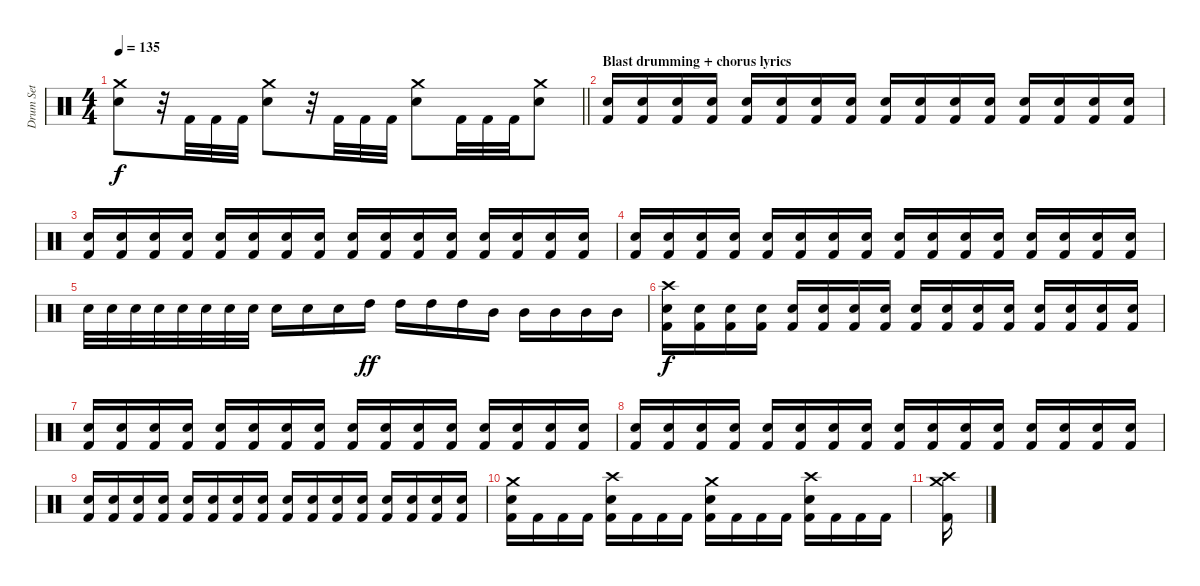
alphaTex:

\track ("Drum Set" "Drum Set") {instrument percussion}
\staff {score}
\articulation defaults
\ts (4 4)
\tempo 135
\clef neutral
\barLineRight lightlight
\ks c
("Crash medium (hit)" "Snare (hit) 2").8{dy f} r.32 "Kick (hit) 2".32 "Kick (hit) 2".32 "Kick (hit) 2".32 ("Crash medium (hit)" "Snare (hit) 2").8 r.32 "Kick (hit) 2".32 "Kick (hit) 2".32 "Kick (hit) 2".32 ("Crash medium (hit)" "Snare (hit) 2").8 "Kick (hit) 2".32 "Kick (hit) 2".32 "Kick (hit) 2".32 ("Crash medium (hit)" "Snare (hit) 2").8 |
\section ("" "Blast drumming + chorus lyrics")
("Snare (hit) 2" "Kick (hit) 2").16 ("Snare (hit) 2" "Kick (hit) 2").16 ("Snare (hit) 2" "Kick (hit) 2").16 ("Snare (hit) 2" "Kick (hit) 2").16 ("Snare (hit) 2" "Kick (hit) 2").16 ("Snare (hit) 2" "Kick (hit) 2").16 ("Snare (hit) 2" "Kick (hit) 2").16 ("Snare (hit) 2" "Kick (hit) 2").16 ("Snare (hit) 2" "Kick (hit) 2").16 ("Snare (hit) 2" "Kick (hit) 2").16 ("Snare (hit) 2" "Kick (hit) 2").16 ("Snare (hit) 2" "Kick (hit) 2").16 ("Snare (hit) 2" "Kick (hit) 2").16 ("Snare (hit) 2" "Kick (hit) 2").16 ("Snare (hit) 2" "Kick (hit) 2").16 ("Snare (hit) 2" "Kick (hit) 2").16 |
("Snare (hit) 2" "Kick (hit) 2").16 ("Snare (hit) 2" "Kick (hit) 2").16 ("Snare (hit) 2" "Kick (hit) 2").16 ("Snare (hit) 2" "Kick (hit) 2").16 ("Snare (hit) 2" "Kick (hit) 2").16 ("Snare (hit) 2" "Kick (hit) 2").16 ("Snare (hit) 2" "Kick (hit) 2").16 ("Snare (hit) 2" "Kick (hit) 2").16 ("Snare (hit) 2" "Kick (hit) 2").16 ("Snare (hit) 2" "Kick (hit) 2").16 ("Snare (hit) 2" "Kick (hit) 2").16 ("Snare (hit) 2" "Kick (hit) 2").16 ("Snare (hit) 2" "Kick (hit) 2").16 ("Snare (hit) 2" "Kick (hit) 2").16 ("Snare (hit) 2" "Kick (hit) 2").16 ("Snare (hit) 2" "Kick (hit) 2").16 |
("Snare (hit) 2" "Kick (hit) 2").16 ("Snare (hit) 2" "Kick (hit) 2").16 ("Snare (hit) 2" "Kick (hit) 2").16 ("Snare (hit) 2" "Kick (hit) 2").16 ("Snare (hit) 2" "Kick (hit) 2").16 ("Snare (hit) 2" "Kick (hit) 2").16 ("Snare (hit) 2" "Kick (hit) 2").16 ("Snare (hit) 2" "Kick (hit) 2").16 ("Snare (hit) 2" "Kick (hit) 2").16 ("Snare (hit) 2" "Kick (hit) 2").16 ("Snare (hit) 2" "Kick (hit) 2").16 ("Snare (hit) 2" "Kick (hit) 2").16 ("Snare (hit) 2" "Kick (hit) 2").16 ("Snare (hit) 2" "Kick (hit) 2").16 ("Snare (hit) 2" "Kick (hit) 2").16 ("Snare (hit) 2" "Kick (hit) 2").16 |
"Snare (hit) 2".32 "Snare (hit) 2".32 "Snare (hit) 2".32 "Snare (hit) 2".32 "Snare (hit) 2".32 "Snare (hit) 2".32 "Snare (hit) 2".32 "Snare (hit) 2".32 "Snare (hit) 2".16 "Snare (hit) 2".16 "Snare (hit) 2".16 "High Tom (hit)".16{dy ff} "High Tom (hit)".16 "High Tom (hit)".16 "High Tom (hit)".16 "Mid Tom (hit)".16 "Mid Tom (hit)".16 "Mid Tom (hit)".16 "Mid Tom (hit)".16 "Mid Tom (hit)".16 |
("Crash high (hit)" "Snare (hit) 2" "Kick (hit) 2").16{dy f} ("Snare (hit) 2" "Kick (hit) 2").16 ("Snare (hit) 2" "Kick (hit) 2").16 ("Snare (hit) 2" "Kick (hit) 2").16 ("Snare (hit) 2" "Kick (hit) 2").16 ("Snare (hit) 2" "Kick (hit) 2").16 ("Snare (hit) 2" "Kick (hit) 2").16 ("Snare (hit) 2" "Kick (hit) 2").16 ("Snare (hit) 2" "Kick (hit) 2").16 ("Snare (hit) 2" "Kick (hit) 2").16 ("Snare (hit) 2" "Kick (hit) 2").16 ("Snare (hit) 2" "Kick (hit) 2").16 ("Snare (hit) 2" "Kick (hit) 2").16 ("Snare (hit) 2" "Kick (hit) 2").16 ("Snare (hit) 2" "Kick (hit) 2").16 ("Snare (hit) 2" "Kick (hit) 2").16 |
("Snare (hit) 2" "Kick (hit) 2").16 ("Snare (hit) 2" "Kick (hit) 2").16 ("Snare (hit) 2" "Kick (hit) 2").16 ("Snare (hit) 2" "Kick (hit) 2").16 ("Snare (hit) 2" "Kick (hit) 2").16 ("Snare (hit) 2" "Kick (hit) 2").16 ("Snare (hit) 2" "Kick (hit) 2").16 ("Snare (hit) 2" "Kick (hit) 2").16 ("Snare (hit) 2" "Kick (hit) 2").16 ("Snare (hit) 2" "Kick (hit) 2").16 ("Snare (hit) 2" "Kick (hit) 2").16 ("Snare (hit) 2" "Kick (hit) 2").16 ("Snare (hit) 2" "Kick (hit) 2").16 ("Snare (hit) 2" "Kick (hit) 2").16 ("Snare (hit) 2" "Kick (hit) 2").16 ("Snare (hit) 2" "Kick (hit) 2").16 |
("Snare (hit) 2" "Kick (hit) 2").16 ("Snare (hit) 2" "Kick (hit) 2").16 ("Snare (hit) 2" "Kick (hit) 2").16 ("Snare (hit) 2" "Kick (hit) 2").16 ("Snare (hit) 2" "Kick (hit) 2").16 ("Snare (hit) 2" "Kick (hit) 2").16 ("Snare (hit) 2" "Kick (hit) 2").16 ("Snare (hit) 2" "Kick (hit) 2").16 ("Snare (hit) 2" "Kick (hit) 2").16 ("Snare (hit) 2" "Kick (hit) 2").16 ("Snare (hit) 2" "Kick (hit) 2").16 ("Snare (hit) 2" "Kick (hit) 2").16 ("Snare (hit) 2" "Kick (hit) 2").16 ("Snare (hit) 2" "Kick (hit) 2").16 ("Snare (hit) 2" "Kick (hit) 2").16 ("Snare (hit) 2" "Kick (hit) 2").16 |
("Snare (hit) 2" "Kick (hit) 2").16 ("Snare (hit) 2" "Kick (hit) 2").16 ("Snare (hit) 2" "Kick (hit) 2").16 ("Snare (hit) 2" "Kick (hit) 2").16 ("Snare (hit) 2" "Kick (hit) 2").16 ("Snare (hit) 2" "Kick (hit) 2").16 ("Snare (hit) 2" "Kick (hit) 2").16 ("Snare (hit) 2" "Kick (hit) 2").16 ("Snare (hit) 2" "Kick (hit) 2").16 ("Snare (hit) 2" "Kick (hit) 2").16 ("Snare (hit) 2" "Kick (hit) 2").16 ("Snare (hit) 2" "Kick (hit) 2").16 ("Snare (hit) 2" "Kick (hit) 2").16 ("Snare (hit) 2" "Kick (hit) 2").16 ("Snare (hit) 2" "Kick (hit) 2").16 ("Snare (hit) 2" "Kick (hit) 2").16 |
("Crash medium (hit)" "Snare (hit) 2" "Kick (hit) 2").16 "Kick (hit) 2".16 "Kick (hit) 2".16 "Kick (hit) 2".16 ("Crash high (hit)" "Snare (hit) 2" "Kick (hit) 2").16 "Kick (hit) 2".16 "Kick (hit) 2".16 "Kick (hit) 2".16 ("Crash medium (hit)" "Snare (hit) 2" "Kick (hit) 2").16 "Kick (hit) 2".16 "Kick (hit) 2".16 "Kick (hit) 2".16 ("Crash high (hit)" "Snare (hit) 2" "Kick (hit) 2").16 "Kick (hit) 2".16 "Kick (hit) 2".16 "Kick (hit) 2".16 |
("Crash high (hit)" "Crash medium (hit)" "Kick (hit) 2").16
